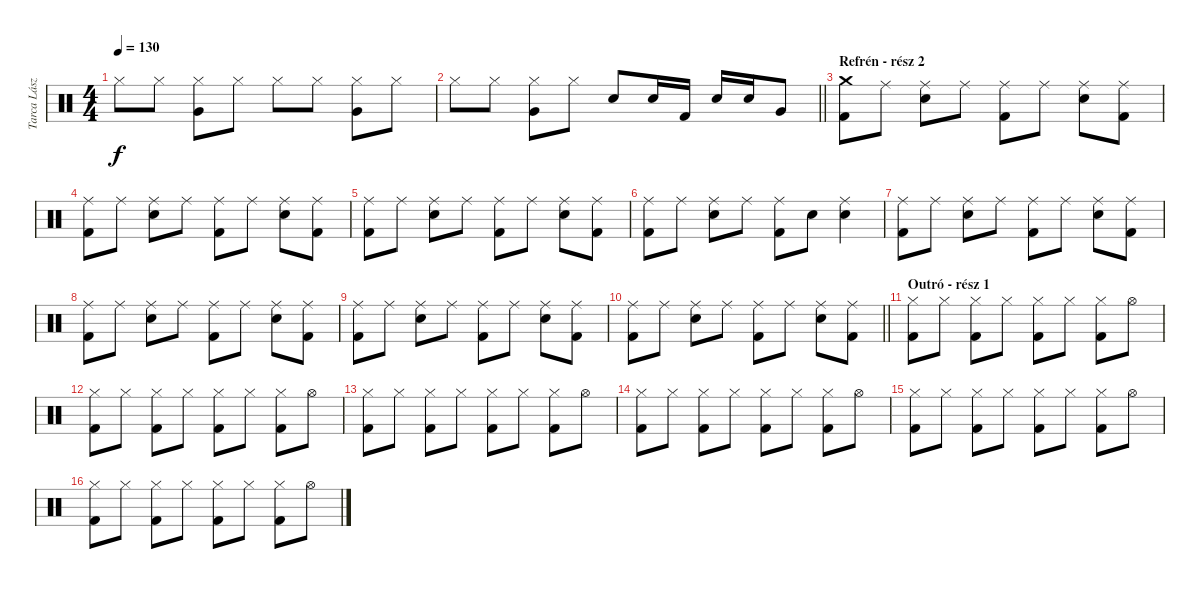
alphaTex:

\track ("Tarca László - dob" "Tarca Lász") {instrument percussion}
\staff {score}
\articulation defaults
\ts (4 4)
\tempo 130
\clef neutral
\ks c "Hi-Hat (closed)".8{dy f} "Hi-Hat (closed)".8
("Hi-Hat (closed)" "Very Low Tom (hit)").8 "Hi-Hat (closed)".8 "Hi-Hat (closed)".8 "Hi-Hat (closed)".8 ("Hi-Hat (closed)" "Very Low Tom (hit)").8 "Hi-Hat (closed)".8 |
\barLineRight lightlight "Hi-Hat (closed)".8 "Hi-Hat (closed)".8
("Hi-Hat (closed)" "Very Low Tom (hit)").8 "Hi-Hat (closed)".8 "Snare (hit) 2".8 "Snare (hit) 2".16 "Kick (hit) 2".16 "Snare (hit) 2".16 "Snare (hit) 2".16 "Very Low Tom (hit)".8 |
\section ("" "Refrén - rész 2")
("Crash medium (hit)" "Kick (hit) 2").8 "Ride (middle)".8 ("Ride (middle)" "Snare (hit) 2").8 "Ride (middle)".8 ("Ride (middle)" "Kick (hit) 2").8 "Ride (middle)".8 ("Ride (middle)" "Snare (hit) 2").8 ("Ride (middle)" "Kick (hit) 2").8 |
("Ride (middle)" "Kick (hit) 2").8 "Ride (middle)".8 ("Ride (middle)" "Snare (hit) 2").8 "Ride (middle)".8 ("Ride (middle)" "Kick (hit) 2").8 "Ride (middle)".8 ("Ride (middle)" "Snare (hit) 2").8 ("Ride (middle)" "Kick (hit) 2").8 |
("Ride (middle)" "Kick (hit) 2").8 "Ride (middle)".8 ("Ride (middle)" "Snare (hit) 2").8 "Ride (middle)".8 ("Ride (middle)" "Kick (hit) 2").8 "Ride (middle)".8 ("Ride (middle)" "Snare (hit) 2").8 ("Ride (middle)" "Kick (hit) 2").8 |
("Ride (middle)" "Kick (hit) 2").8 "Ride (middle)".8 ("Ride (middle)" "Snare (hit) 2").8 "Ride (middle)".8 ("Ride (middle)" "Kick (hit) 2").8 "Snare (hit) 2".8 ("Ride (middle)" "Snare (hit) 2").4 |
("Ride (middle)" "Kick (hit) 2").8 "Ride (middle)".8 ("Ride (middle)" "Snare (hit) 2").8 "Ride (middle)".8 ("Ride (middle)" "Kick (hit) 2").8 "Ride (middle)".8 ("Ride (middle)" "Snare (hit) 2").8 ("Ride (middle)" "Kick (hit) 2").8 |
("Ride (middle)" "Kick (hit) 2").8 "Ride (middle)".8 ("Ride (middle)" "Snare (hit) 2").8 "Ride (middle)".8 ("Ride (middle)" "Kick (hit) 2").8 "Ride (middle)".8 ("Ride (middle)" "Snare (hit) 2").8 ("Ride (middle)" "Kick (hit) 2").8 |
("Ride (middle)" "Kick (hit) 2").8 "Ride (middle)".8 ("Ride (middle)" "Snare (hit) 2").8 "Ride (middle)".8 ("Ride (middle)" "Kick (hit) 2").8 "Ride (middle)".8 ("Ride (middle)" "Snare (hit) 2").8 ("Ride (middle)" "Kick (hit) 2").8 |
\barLineRight lightlight
("Ride (middle)" "Kick (hit) 2").8 "Ride (middle)".8 ("Ride (middle)" "Snare (hit) 2").8 "Ride (middle)".8 ("Ride (middle)" "Kick (hit) 2").8 "Ride (middle)".8 ("Ride (middle)" "Snare (hit) 2").8 ("Ride (middle)" "Kick (hit) 2").8 |
\section ("" "Outró - rész 1")
("Hi-Hat (closed)" "Kick (hit) 2").8 "Hi-Hat (closed)".8 ("Hi-Hat (closed)" "Kick (hit) 2").8 "Hi-Hat (closed)".8 ("Hi-Hat (closed)" "Kick (hit) 2").8 "Hi-Hat (closed)".8 ("Hi-Hat (closed)" "Kick (hit) 2").8 "Hi-Hat (open)".8 |
("Hi-Hat (closed)" "Kick (hit) 2").8 "Hi-Hat (closed)".8 ("Hi-Hat (closed)" "Kick (hit) 2").8 "Hi-Hat (closed)".8 ("Hi-Hat (closed)" "Kick (hit) 2").8 "Hi-Hat (closed)".8 ("Hi-Hat (closed)" "Kick (hit) 2").8 "Hi-Hat (open)".8 |
("Hi-Hat (closed)" "Kick (hit) 2").8 "Hi-Hat (closed)".8 ("Hi-Hat (closed)" "Kick (hit) 2").8 "Hi-Hat (closed)".8 ("Hi-Hat (closed)" "Kick (hit) 2").8 "Hi-Hat (closed)".8 ("Hi-Hat (closed)" "Kick (hit) 2").8 "Hi-Hat (open)".8 |
("Hi-Hat (closed)" "Kick (hit) 2").8 "Hi-Hat (closed)".8 ("Hi-Hat (closed)" "Kick (hit) 2").8 "Hi-Hat (closed)".8 ("Hi-Hat (closed)" "Kick (hit) 2").8 "Hi-Hat (closed)".8 ("Hi-Hat (closed)" "Kick (hit) 2").8 "Hi-Hat (open)".8 |
("Hi-Hat (closed)" "Kick (hit) 2").8 "Hi-Hat (closed)".8 ("Hi-Hat (closed)" "Kick (hit) 2").8 "Hi-Hat (closed)".8 ("Hi-Hat (closed)" "Kick (hit) 2").8 "Hi-Hat (closed)".8 ("Hi-Hat (closed)" "Kick (hit) 2").8 "Hi-Hat (open)".8 |
("Hi-Hat (closed)" "Kick (hit) 2").8 "Hi-Hat (closed)".8 ("Hi-Hat (closed)" "Kick (hit) 2").8 "Hi-Hat (closed)".8 ("Hi-Hat (closed)" "Kick (hit) 2").8 "Hi-Hat (closed)".8 ("Hi-Hat (closed)" "Kick (hit) 2").8 "Hi-Hat (open)".8
